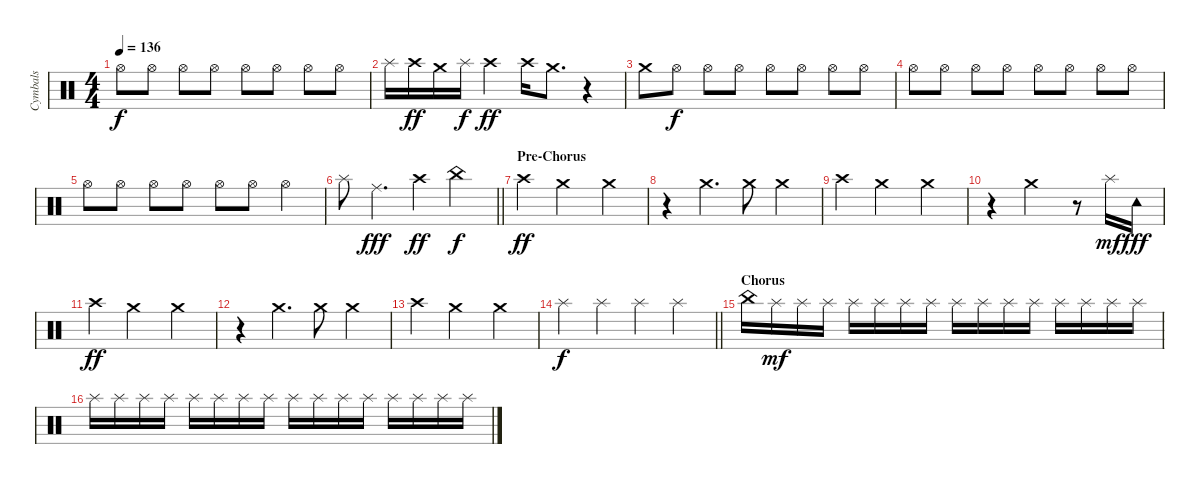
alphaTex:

\track ("Cymbals" "Cymbals") {instrument percussion}
\staff {score}
\articulation defaults
\ts (4 4)
\tempo 136
\clef neutral
\ks c "Hi-Hat (open)".8{dy f} "Hi-Hat (open)".8 "Hi-Hat (open)".8 "Hi-Hat (open)".8 "Hi-Hat (open)".8 "Hi-Hat (open)".8 "Hi-Hat (open)".8 "Hi-Hat (open)".8
|
"Splash (hit)".16 "Crash high (hit)".16{dy ff} "Crash medium (hit)".16 "Splash (hit)".16{dy f} "Crash high (hit)".4{dy ff} "Crash high (hit)".16 "Crash medium (hit)".8{d} r.4 |
"Crash medium (hit)".8 "Hi-Hat (open)".8{dy f} "Hi-Hat (open)".8 "Hi-Hat (open)".8 "Hi-Hat (open)".8 "Hi-Hat (open)".8 "Hi-Hat (open)".8 "Hi-Hat (open)".8 |
"Hi-Hat (open)".8 "Hi-Hat (open)".8 "Hi-Hat (open)".8 "Hi-Hat (open)".8 "Hi-Hat (open)".8 "Hi-Hat (open)".8 "Hi-Hat (open)".8 "Hi-Hat (open)".8 |
"Hi-Hat (open)".8 "Hi-Hat (open)".8 "Hi-Hat (open)".8 "Hi-Hat (open)".8 "Hi-Hat (open)".8 "Hi-Hat (open)".8 "Hi-Hat (open)".4 |
\barLineRight lightlight "Splash (hit)".8 "Ride (middle)".4{d dy fff} "Crash high (hit)".4{dy ff} "China (hit)".4{dy f}
|
\section ("" "Pre-Chorus")
"Crash high (hit)".4{dy ff} "Crash medium (hit)".2 "Crash medium (hit)".4 |
r.4 "Crash medium (hit)".4{d} "Crash medium (hit)".8 "Crash medium (hit)".4 |
"Crash high (hit)".4 "Crash medium (hit)".2 "Crash medium (hit)".4 |
r.4 "Crash medium (hit)".2 r.8 "Splash (hit)".16{dy mf} "Tambourine (hit)".16{dy fff} |
"Crash high (hit)".4{dy ff} "Crash medium (hit)".2 "Crash medium (hit)".4 |
r.4 "Crash medium (hit)".4{d} "Crash medium (hit)".8 "Crash medium (hit)".4 |
"Crash high (hit)".4 "Crash medium (hit)".2 "Crash medium (hit)".4 |
\barLineRight lightlight "Splash (hit)".4{dy f} "Splash (hit)".4 "Splash (hit)".4 "Splash (hit)".4
|
\section ("" "Chorus")
"China (hit)".16 "Splash (hit)".16{dy mf} "Splash (hit)".16 "Splash (hit)".16 "Splash (hit)".16 "Splash (hit)".16 "Splash (hit)".16 "Splash (hit)".16 "Splash (hit)".16 "Splash (hit)".16 "Splash (hit)".16 "Splash (hit)".16 "Splash (hit)".16 "Splash (hit)".16 "Splash (hit)".16 "Splash (hit)".16 |
"Splash (hit)".16 "Splash (hit)".16 "Splash (hit)".16 "Splash (hit)".16 "Splash (hit)".16 "Splash (hit)".16 "Splash (hit)".16 "Splash (hit)".16 "Splash (hit)".16 "Splash (hit)".16 "Splash (hit)".16 "Splash (hit)".16 "Splash (hit)".16 "Splash (hit)".16 "Splash (hit)".16 "Splash (hit)".16
